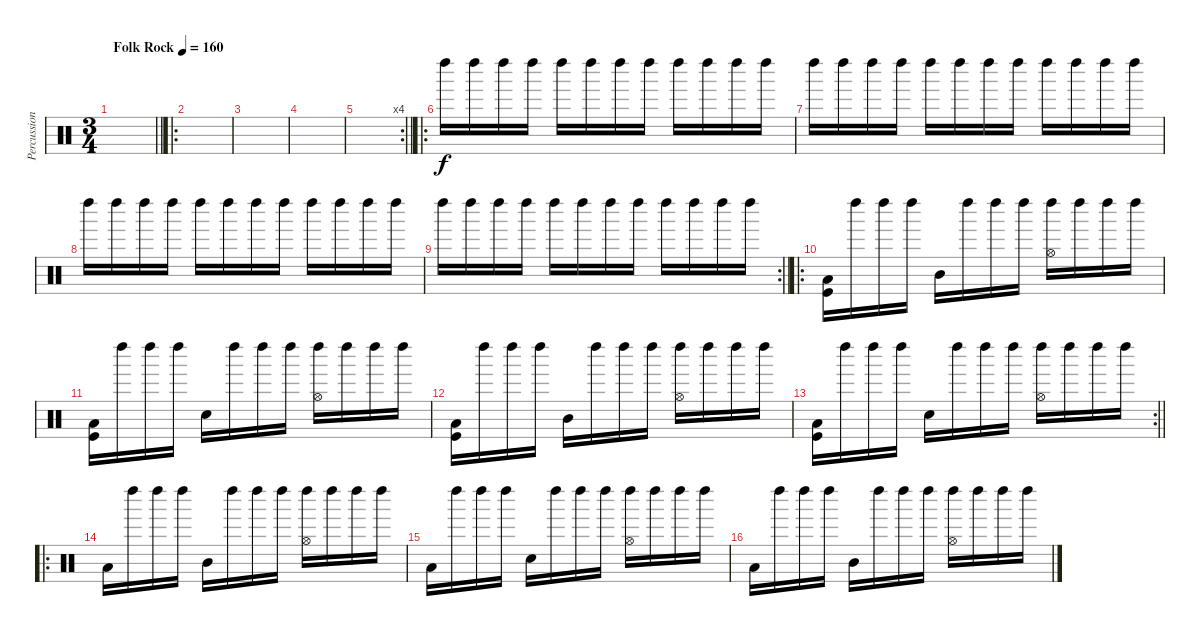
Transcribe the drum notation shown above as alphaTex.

\track ("Percussion" "Percussion") {instrument percussion}
\staff {score}
\articulation defaults
\ts (3 4)
\tempo (160 "Folk Rock")
\clef neutral
\barLineRight lightlight
\ks c
|
\ro
|
|
|
\rc 4
\barLineRight lightlight
|
\ro "Left Maraca (hit)".16 "Left Maraca (hit)".16 "Left Maraca (hit)".16 "Left Maraca (hit)".16 "Left Maraca (hit)".16 "Left Maraca (hit)".16 "Left Maraca (hit)".16 "Left Maraca (hit)".16 "Left Maraca (hit)".16 "Left Maraca (hit)".16 "Left Maraca (hit)".16 "Left Maraca (hit)".16
|
"Left Maraca (hit)".16 "Left Maraca (hit)".16 "Left Maraca (hit)".16 "Left Maraca (hit)".16 "Left Maraca (hit)".16 "Left Maraca (hit)".16 "Left Maraca (hit)".16 "Left Maraca (hit)".16 "Left Maraca (hit)".16 "Left Maraca (hit)".16 "Left Maraca (hit)".16 "Left Maraca (hit)".16 |
"Left Maraca (hit)".16 "Left Maraca (hit)".16 "Left Maraca (hit)".16 "Left Maraca (hit)".16 "Left Maraca (hit)".16 "Left Maraca (hit)".16 "Left Maraca (hit)".16 "Left Maraca (hit)".16 "Left Maraca (hit)".16 "Left Maraca (hit)".16 "Left Maraca (hit)".16 "Left Maraca (hit)".16 |
\rc 2
\barLineRight lightlight "Left Maraca (hit)".16 "Left Maraca (hit)".16 "Left Maraca (hit)".16 "Left Maraca (hit)".16 "Left Maraca (hit)".16 "Left Maraca (hit)".16 "Left Maraca (hit)".16 "Left Maraca (hit)".16 "Left Maraca (hit)".16 "Left Maraca (hit)".16 "Left Maraca (hit)".16 "Left Maraca (hit)".16
|
\ro
("Low Floor Tom (hit)" "Kick (hit)").16 "Left Maraca (hit)".16 "Left Maraca (hit)".16 "Left Maraca (hit)".16 "Mid Tom (hit)".16 "Left Maraca (hit)".16 "Left Maraca (hit)".16 "Left Maraca (hit)".16 ("Left Maraca (hit)" "Hi-Hat (open)").16 "Left Maraca (hit)".16 "Left Maraca (hit)".16 "Left Maraca (hit)".16 |
("Low Floor Tom (hit)" "Kick (hit)").16 "Left Maraca (hit)".16 "Left Maraca (hit)".16 "Left Maraca (hit)".16 "Snare (hit) 2".16 "Left Maraca (hit)".16 "Left Maraca (hit)".16 "Left Maraca (hit)".16 ("Left Maraca (hit)" "Hi-Hat (open)").16 "Left Maraca (hit)".16 "Left Maraca (hit)".16 "Left Maraca (hit)".16 |
("Low Floor Tom (hit)" "Kick (hit)").16 "Left Maraca (hit)".16 "Left Maraca (hit)".16 "Left Maraca (hit)".16 "Mid Tom (hit)".16 "Left Maraca (hit)".16 "Left Maraca (hit)".16 "Left Maraca (hit)".16 ("Left Maraca (hit)" "Hi-Hat (open)").16 "Left Maraca (hit)".16 "Left Maraca (hit)".16 "Left Maraca (hit)".16 |
\rc 2
\barLineRight lightlight
("Low Floor Tom (hit)" "Kick (hit)").16 "Left Maraca (hit)".16 "Left Maraca (hit)".16 "Left Maraca (hit)".16 "Snare (hit) 2".16 "Left Maraca (hit)".16 "Left Maraca (hit)".16 "Left Maraca (hit)".16 ("Left Maraca (hit)" "Hi-Hat (open)").16 "Left Maraca (hit)".16 "Left Maraca (hit)".16 "Left Maraca (hit)".16 |
\ro "Low Floor Tom (hit)".16 "Left Maraca (hit)".16 "Left Maraca (hit)".16 "Left Maraca (hit)".16 "Mid Tom (hit)".16 "Left Maraca (hit)".16 "Left Maraca (hit)".16 "Left Maraca (hit)".16
("Left Maraca (hit)" "Hi-Hat (open)").16 "Left Maraca (hit)".16 "Left Maraca (hit)".16 "Left Maraca (hit)".16 |
"Low Floor Tom (hit)".16 "Left Maraca (hit)".16 "Left Maraca (hit)".16 "Left Maraca (hit)".16 "Snare (hit) 2".16 "Left Maraca (hit)".16 "Left Maraca (hit)".16 "Left Maraca (hit)".16 ("Left Maraca (hit)" "Hi-Hat (open)").16 "Left Maraca (hit)".16 "Left Maraca (hit)".16 "Left Maraca (hit)".16 |
"Low Floor Tom (hit)".16 "Left Maraca (hit)".16 "Left Maraca (hit)".16 "Left Maraca (hit)".16 "Mid Tom (hit)".16 "Left Maraca (hit)".16 "Left Maraca (hit)".16 "Left Maraca (hit)".16 ("Left Maraca (hit)" "Hi-Hat (open)").16 "Left Maraca (hit)".16 "Left Maraca (hit)".16 "Left Maraca (hit)".16
